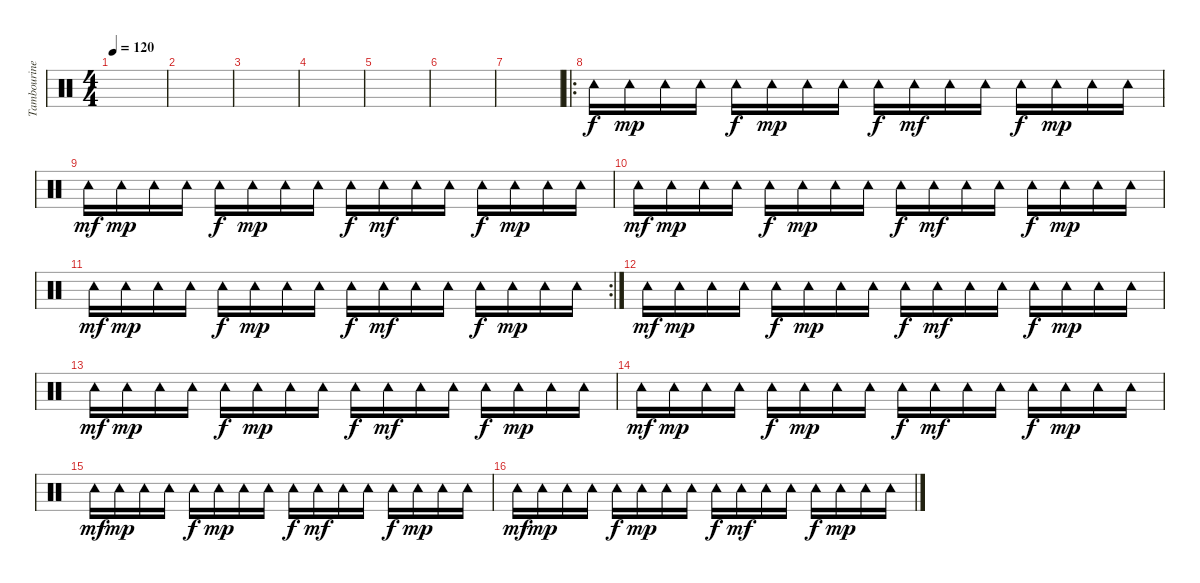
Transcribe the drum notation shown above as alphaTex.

\track ("Tambourine Fills" "Tambourine") {instrument percussion}
\staff {score}
\articulation defaults
\ts (4 4)
\tempo 120
\clef neutral
\ks c
|
|
|
|
|
|
|
\ro "Tambourine (hit)".16 "Tambourine (hit)".16{dy mp} "Tambourine (hit)".16 "Tambourine (hit)".16 "Tambourine (hit)".16{dy f} "Tambourine (hit)".16{dy mp} "Tambourine (hit)".16 "Tambourine (hit)".16 "Tambourine (hit)".16{dy f} "Tambourine (hit)".16{dy mf} "Tambourine (hit)".16 "Tambourine (hit)".16 "Tambourine (hit)".16{dy f} "Tambourine (hit)".16{dy mp} "Tambourine (hit)".16 "Tambourine (hit)".16
|
"Tambourine (hit)".16{dy mf} "Tambourine (hit)".16{dy mp} "Tambourine (hit)".16 "Tambourine (hit)".16 "Tambourine (hit)".16{dy f} "Tambourine (hit)".16{dy mp} "Tambourine (hit)".16 "Tambourine (hit)".16 "Tambourine (hit)".16{dy f} "Tambourine (hit)".16{dy mf} "Tambourine (hit)".16 "Tambourine (hit)".16 "Tambourine (hit)".16{dy f} "Tambourine (hit)".16{dy mp} "Tambourine (hit)".16 "Tambourine (hit)".16 |
"Tambourine (hit)".16{dy mf} "Tambourine (hit)".16{dy mp} "Tambourine (hit)".16 "Tambourine (hit)".16 "Tambourine (hit)".16{dy f} "Tambourine (hit)".16{dy mp} "Tambourine (hit)".16 "Tambourine (hit)".16 "Tambourine (hit)".16{dy f} "Tambourine (hit)".16{dy mf} "Tambourine (hit)".16 "Tambourine (hit)".16 "Tambourine (hit)".16{dy f} "Tambourine (hit)".16{dy mp} "Tambourine (hit)".16 "Tambourine (hit)".16 |
\rc 2 "Tambourine (hit)".16{dy mf} "Tambourine (hit)".16{dy mp} "Tambourine (hit)".16 "Tambourine (hit)".16 "Tambourine (hit)".16{dy f} "Tambourine (hit)".16{dy mp} "Tambourine (hit)".16 "Tambourine (hit)".16 "Tambourine (hit)".16{dy f} "Tambourine (hit)".16{dy mf} "Tambourine (hit)".16 "Tambourine (hit)".16 "Tambourine (hit)".16{dy f} "Tambourine (hit)".16{dy mp} "Tambourine (hit)".16 "Tambourine (hit)".16
|
"Tambourine (hit)".16{dy mf} "Tambourine (hit)".16{dy mp} "Tambourine (hit)".16 "Tambourine (hit)".16 "Tambourine (hit)".16{dy f} "Tambourine (hit)".16{dy mp} "Tambourine (hit)".16 "Tambourine (hit)".16 "Tambourine (hit)".16{dy f} "Tambourine (hit)".16{dy mf} "Tambourine (hit)".16 "Tambourine (hit)".16 "Tambourine (hit)".16{dy f} "Tambourine (hit)".16{dy mp} "Tambourine (hit)".16 "Tambourine (hit)".16 |
"Tambourine (hit)".16{dy mf} "Tambourine (hit)".16{dy mp} "Tambourine (hit)".16 "Tambourine (hit)".16 "Tambourine (hit)".16{dy f} "Tambourine (hit)".16{dy mp} "Tambourine (hit)".16 "Tambourine (hit)".16 "Tambourine (hit)".16{dy f} "Tambourine (hit)".16{dy mf} "Tambourine (hit)".16 "Tambourine (hit)".16 "Tambourine (hit)".16{dy f} "Tambourine (hit)".16{dy mp} "Tambourine (hit)".16 "Tambourine (hit)".16 |
"Tambourine (hit)".16{dy mf} "Tambourine (hit)".16{dy mp} "Tambourine (hit)".16 "Tambourine (hit)".16 "Tambourine (hit)".16{dy f} "Tambourine (hit)".16{dy mp} "Tambourine (hit)".16 "Tambourine (hit)".16 "Tambourine (hit)".16{dy f} "Tambourine (hit)".16{dy mf} "Tambourine (hit)".16 "Tambourine (hit)".16 "Tambourine (hit)".16{dy f} "Tambourine (hit)".16{dy mp} "Tambourine (hit)".16 "Tambourine (hit)".16 |
"Tambourine (hit)".16{dy mf} "Tambourine (hit)".16{dy mp} "Tambourine (hit)".16 "Tambourine (hit)".16 "Tambourine (hit)".16{dy f} "Tambourine (hit)".16{dy mp} "Tambourine (hit)".16 "Tambourine (hit)".16 "Tambourine (hit)".16{dy f} "Tambourine (hit)".16{dy mf} "Tambourine (hit)".16 "Tambourine (hit)".16 "Tambourine (hit)".16{dy f} "Tambourine (hit)".16{dy mp} "Tambourine (hit)".16 "Tambourine (hit)".16 |
"Tambourine (hit)".16{dy mf} "Tambourine (hit)".16{dy mp} "Tambourine (hit)".16 "Tambourine (hit)".16 "Tambourine (hit)".16{dy f} "Tambourine (hit)".16{dy mp} "Tambourine (hit)".16 "Tambourine (hit)".16 "Tambourine (hit)".16{dy f} "Tambourine (hit)".16{dy mf} "Tambourine (hit)".16 "Tambourine (hit)".16 "Tambourine (hit)".16{dy f} "Tambourine (hit)".16{dy mp} "Tambourine (hit)".16 "Tambourine (hit)".16
